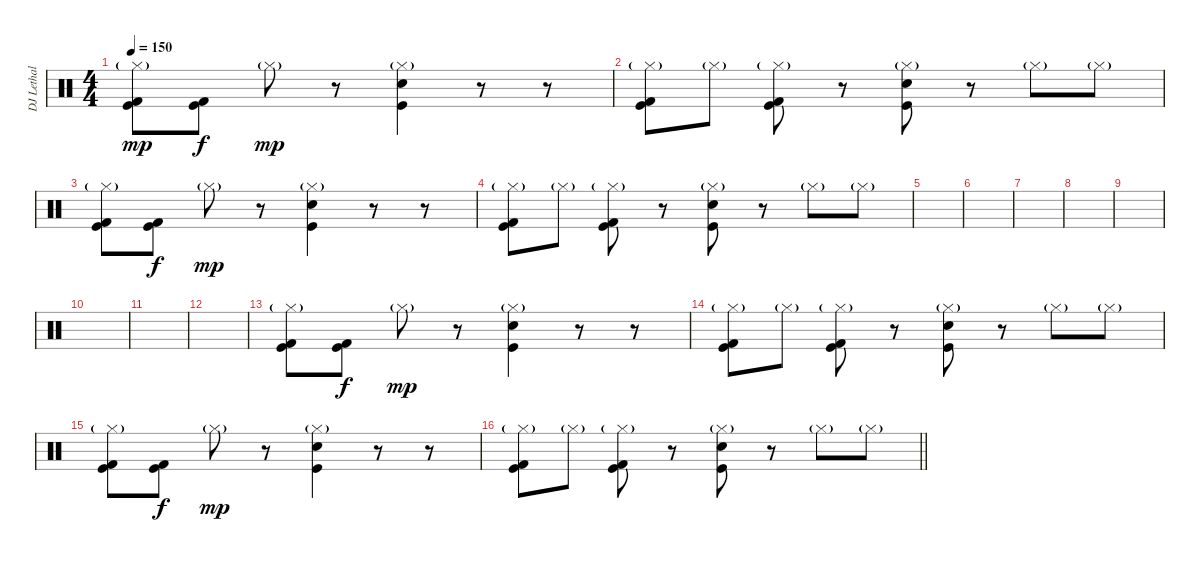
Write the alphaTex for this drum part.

\track ("DJ Lethal (Beats 2)" "DJ Lethal ") {instrument percussion}
\staff {score}
\articulation defaults
\ts (4 4)
\tempo 150
\clef neutral
\ks c
("Hi-Hat (closed)"{g} "Kick (hit) 2" "Kick (hit)").8{dy mp} ("Kick (hit) 2" "Kick (hit)").8{dy f} "Hi-Hat (closed)"{g}.8{dy mp} r.8 ("Hi-Hat (closed)"{g} "Snare (hit) 2" "Kick (hit)").4 r.8 r.8 |
("Hi-Hat (closed)"{g} "Kick (hit) 2" "Kick (hit)").8 "Hi-Hat (closed)"{g}.8 ("Hi-Hat (closed)"{g} "Kick (hit) 2" "Kick (hit)").8 r.8 ("Hi-Hat (closed)"{g} "Snare (hit) 2" "Kick (hit)").8 r.8 "Hi-Hat (closed)"{g}.8 "Hi-Hat (closed)"{g}.8 |
("Hi-Hat (closed)"{g} "Kick (hit) 2" "Kick (hit)").8 ("Kick (hit) 2" "Kick (hit)").8{dy f} "Hi-Hat (closed)"{g}.8{dy mp} r.8 ("Hi-Hat (closed)"{g} "Snare (hit) 2" "Kick (hit)").4 r.8 r.8 |
("Hi-Hat (closed)"{g} "Kick (hit) 2" "Kick (hit)").8 "Hi-Hat (closed)"{g}.8 ("Hi-Hat (closed)"{g} "Kick (hit) 2" "Kick (hit)").8 r.8 ("Hi-Hat (closed)"{g} "Snare (hit) 2" "Kick (hit)").8 r.8 "Hi-Hat (closed)"{g}.8 "Hi-Hat (closed)"{g}.8 |
|
|
|
|
|
|
|
|
("Hi-Hat (closed)"{g} "Kick (hit) 2" "Kick (hit)").8 ("Kick (hit) 2" "Kick (hit)").8{dy f} "Hi-Hat (closed)"{g}.8{dy mp} r.8 ("Hi-Hat (closed)"{g} "Snare (hit) 2" "Kick (hit)").4 r.8 r.8 |
("Hi-Hat (closed)"{g} "Kick (hit) 2" "Kick (hit)").8 "Hi-Hat (closed)"{g}.8 ("Hi-Hat (closed)"{g} "Kick (hit) 2" "Kick (hit)").8 r.8 ("Hi-Hat (closed)"{g} "Snare (hit) 2" "Kick (hit)").8 r.8 "Hi-Hat (closed)"{g}.8 "Hi-Hat (closed)"{g}.8 |
("Hi-Hat (closed)"{g} "Kick (hit) 2" "Kick (hit)").8 ("Kick (hit) 2" "Kick (hit)").8{dy f} "Hi-Hat (closed)"{g}.8{dy mp} r.8 ("Hi-Hat (closed)"{g} "Snare (hit) 2" "Kick (hit)").4 r.8 r.8 |
\barLineRight lightlight
("Hi-Hat (closed)"{g} "Kick (hit) 2" "Kick (hit)").8 "Hi-Hat (closed)"{g}.8 ("Hi-Hat (closed)"{g} "Kick (hit) 2" "Kick (hit)").8 r.8 ("Hi-Hat (closed)"{g} "Snare (hit) 2" "Kick (hit)").8 r.8 "Hi-Hat (closed)"{g}.8 "Hi-Hat (closed)"{g}.8
